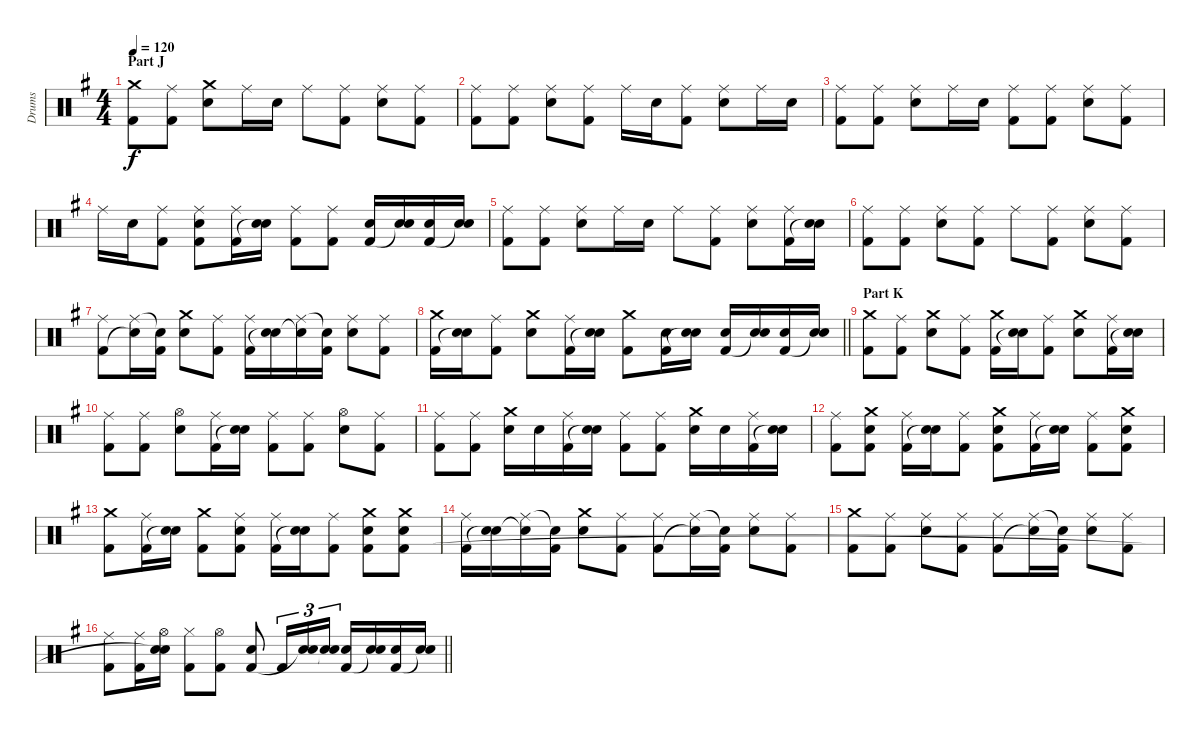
\track ("Drums" "Drums") {instrument percussion}
\staff {score}
\articulation defaults
\ts (4 4)
\section ("" "Part J")
\tempo 120
\clef neutral
\ks g
("Crash medium (hit)" "Kick (hit) 2").8{dy f} ("Ride (middle)" "Kick (hit) 2").8 ("Crash medium (hit)" "Electric Snare (hit)").8 "Ride (middle)".16 "Electric Snare (hit)".16 "Ride (middle)".8 ("Ride (middle)" "Kick (hit) 2").8 ("Ride (middle)" "Electric Snare (hit)").8 ("Ride (middle)" "Kick (hit) 2").8 |
("Ride (middle)" "Kick (hit) 2").8 ("Ride (middle)" "Kick (hit) 2").8 ("Ride (middle)" "Electric Snare (hit)").8 ("Ride (middle)" "Kick (hit) 2").8 "Ride (middle)".16 "Electric Snare (hit)".16 ("Ride (middle)" "Kick (hit) 2").8 ("Ride (middle)" "Electric Snare (hit)").8 "Ride (middle)".16 "Electric Snare (hit)".16 |
("Ride (middle)" "Kick (hit) 2").8 ("Ride (middle)" "Kick (hit) 2").8 ("Ride (middle)" "Electric Snare (hit)").8 "Ride (middle)".16 "Snare (hit) 2".16 ("Ride (middle)" "Kick (hit) 2").8 ("Ride (middle)" "Kick (hit) 2").8 ("Ride (middle)" "Electric Snare (hit)").8 ("Ride (middle)" "Kick (hit) 2").8 |
"Ride (middle)".16 "Electric Snare (hit)".16 ("Ride (middle)" "Kick (hit) 2").8 ("Ride (middle)" "Electric Snare (hit)" "Kick (hit) 2").8 ("Ride (middle)" "Kick (hit) 2").16 ("Snare (hit) 2" "Snare (hit)"{t}).16 ("Ride (middle)" "Kick (hit) 2").8 ("Ride (middle)" "Kick (hit) 2").8 ("Electric Snare (hit)" "Kick (hit) 2").16 ("Electric Snare (hit)" "Snare (hit)"{t}).16 ("Electric Snare (hit)" "Kick (hit) 2").16 ("Electric Snare (hit)" "Snare (hit)"{t}).16 |
("Ride (middle)" "Kick (hit) 2").8 ("Ride (middle)" "Kick (hit) 2").8 ("Ride (middle)" "Electric Snare (hit)").8 "Ride (middle)".16 "Snare (hit) 2".16 "Ride (middle)".8 ("Ride (middle)" "Kick (hit) 2").8 ("Ride (middle)" "Electric Snare (hit)").8 ("Ride (middle)" "Kick (hit) 2").16 ("Snare (hit) 2" "Snare (hit)"{t}).16 |
("Ride (middle)" "Kick (hit) 2").8 ("Ride (middle)" "Kick (hit) 2").8 ("Ride (middle)" "Electric Snare (hit)").8 ("Ride (middle)" "Kick (hit) 2").8 "Ride (middle)".8 ("Ride (middle)" "Kick (hit) 2").8 ("Ride (middle)" "Electric Snare (hit)").8 ("Ride (middle)" "Kick (hit) 2").8 |
("Ride (middle)" "Kick (hit) 2").8 ("Ride (middle)" "Snare (hit)"{t}).16 ("Snare (hit)"{t} "Kick (hit) 2").16 ("Crash medium (hit)" "Electric Snare (hit)").8 ("Ride (middle)" "Kick (hit) 2").8 ("Ride (middle)" "Kick (hit) 2").16 ("Electric Snare (hit)" "Snare (hit)"{t}).16 ("Ride (middle)" "Snare (hit)"{t}).16 ("Snare (hit)"{t} "Kick (hit) 2").16 ("Ride (middle)" "Electric Snare (hit)").8 ("Ride (middle)" "Kick (hit) 2").8 |
\barLineRight lightlight
("Crash medium (hit)" "Kick (hit) 2").16 ("Electric Snare (hit)" "Snare (hit)"{t}).16 ("Ride (middle)" "Kick (hit) 2").8 ("Crash medium (hit)" "Electric Snare (hit)").8 ("Ride (middle)" "Kick (hit) 2").16 ("Electric Snare (hit)" "Snare (hit)"{t}).16 ("Crash medium (hit)" "Kick (hit) 2").8 ("Electric Snare (hit)" "Kick (hit) 2").16 ("Electric Snare (hit)" "Snare (hit)"{t}).16 ("Electric Snare (hit)" "Kick (hit) 2").16 ("Electric Snare (hit)" "Snare (hit)"{t}).16 ("Electric Snare (hit)" "Kick (hit) 2").16 ("Electric Snare (hit)" "Snare (hit)"{t}).16 |
\section ("" "Part K")
("Crash medium (hit)" "Kick (hit) 2").8 ("Ride (middle)" "Kick (hit) 2").8 ("Crash medium (hit)" "Electric Snare (hit)").8 ("Ride (middle)" "Kick (hit) 2").8 ("Crash medium (hit)" "Kick (hit) 2").16 ("Electric Snare (hit)" "Snare (hit)"{t}).16 ("Ride (middle)" "Kick (hit) 2").8 ("Crash medium (hit)" "Electric Snare (hit)").8 ("Ride (middle)" "Kick (hit) 2").16 ("Snare (hit) 2" "Snare (hit)"{t}).16 |
("Ride (middle)" "Kick (hit) 2").8 ("Ride (middle)" "Kick (hit) 2").8 ("Hi-Hat (open)" "Electric Snare (hit)").8 ("Ride (middle)" "Kick (hit) 2").16 ("Snare (hit) 2" "Snare (hit)"{t}).16 ("Ride (middle)" "Kick (hit) 2").8 ("Ride (middle)" "Kick (hit) 2").8 ("Hi-Hat (open)" "Electric Snare (hit)").8 ("Ride (middle)" "Kick (hit) 2").8 |
("Ride (middle)" "Kick (hit) 2").8 ("Ride (middle)" "Kick (hit) 2").8 ("Crash medium (hit)" "Electric Snare (hit)").16 "Snare (hit) 2".16 ("Ride (middle)" "Kick (hit) 2").16 ("Snare (hit) 2" "Snare (hit)"{t}).16 ("Ride (middle)" "Kick (hit) 2").8 ("Ride (middle)" "Kick (hit) 2").8 ("Crash medium (hit)" "Electric Snare (hit)").16 "Snare (hit) 2".16 ("Ride (middle)" "Kick (hit) 2").16 ("Snare (hit) 2" "Snare (hit)"{t}).16 |
("Ride (middle)" "Kick (hit) 2").8 ("Crash medium (hit)" "Electric Snare (hit)" "Kick (hit) 2").8 ("Ride (middle)" "Kick (hit) 2").16 ("Electric Snare (hit)" "Snare (hit)"{t}).16 ("Ride (middle)" "Kick (hit) 2").8 ("Crash medium (hit)" "Electric Snare (hit)" "Kick (hit) 2").8 ("Ride (middle)" "Kick (hit) 2").16 ("Electric Snare (hit)" "Snare (hit)"{t}).16 ("Ride (middle)" "Kick (hit) 2").8 ("Crash medium (hit)" "Electric Snare (hit)" "Kick (hit) 2").8 |
("Crash medium (hit)" "Kick (hit) 2").8 ("Ride (middle)" "Kick (hit) 2").16 ("Electric Snare (hit)" "Snare (hit)"{t}).16 ("Crash medium (hit)" "Kick (hit) 2").8 ("Ride (middle)" "Electric Snare (hit)" "Kick (hit) 2").8 ("Ride (middle)" "Kick (hit) 2").16 ("Electric Snare (hit)" "Snare (hit)"{t}).16 ("Ride (middle)" "Kick (hit) 2").8 ("Crash medium (hit)" "Electric Snare (hit)" "Kick (hit) 2").8 ("Crash medium (hit)" "Electric Snare (hit)" "Kick (hit) 2").8 |
("Ride (middle)" "Kick (hit) 2").16 ("Electric Snare (hit)" "Snare (hit)"{t}).16 ("Ride (middle)" "Snare (hit)"{t}).16 ("Snare (hit)"{t} "Kick (hit) 2").16 ("Crash medium (hit)" "Electric Snare (hit)").8 ("Ride (middle)" "Kick (hit) 2").8 ("Ride (middle)" "Kick (hit) 2").8 ("Ride (middle)" "Snare (hit)"{t}).16 ("Snare (hit)"{t} "Kick (hit) 2").16 ("Ride (middle)" "Electric Snare (hit)").8 ("Ride (middle)" "Kick (hit) 2").8 |
("Crash medium (hit)" "Kick (hit) 2").8 ("Ride (middle)" "Kick (hit) 2").8 ("Ride (middle)" "Electric Snare (hit)").8 ("Ride (middle)" "Kick (hit) 2").8 ("Ride (middle)" "Kick (hit) 2").8 ("Ride (middle)" "Snare (hit)"{t}).16 ("Snare (hit)"{t} "Kick (hit) 2").16 ("Ride (middle)" "Electric Snare (hit)").8 ("Ride (middle)" "Kick (hit) 2").8 |
\barLineRight lightlight
("Ride (middle)" "Kick (hit) 2").8 ("Ride (middle)" "Kick (hit) 2").16 ("Hi-Hat (open)" "Electric Snare (hit)" "Snare (hit)"{t}).16 ("Hi-Hat (closed)" "Kick (hit) 2").8 ("Hi-Hat (open)" "Kick (hit) 2").8 ("Electric Snare (hit)" "Kick (hit) 2").8 "Kick (hit) 2".16{tu (3 2)} ("Electric Snare (hit)" "Snare (hit)"{t}).16{tu (3 2)} ("Electric Snare (hit)" "Snare (hit)"{t}).16{tu (3 2)} ("Electric Snare (hit)" "Kick (hit) 2").16 ("Electric Snare (hit)" "Snare (hit)"{t}).16 ("Electric Snare (hit)" "Kick (hit) 2").16 ("Electric Snare (hit)" "Snare (hit)"{t}).16
